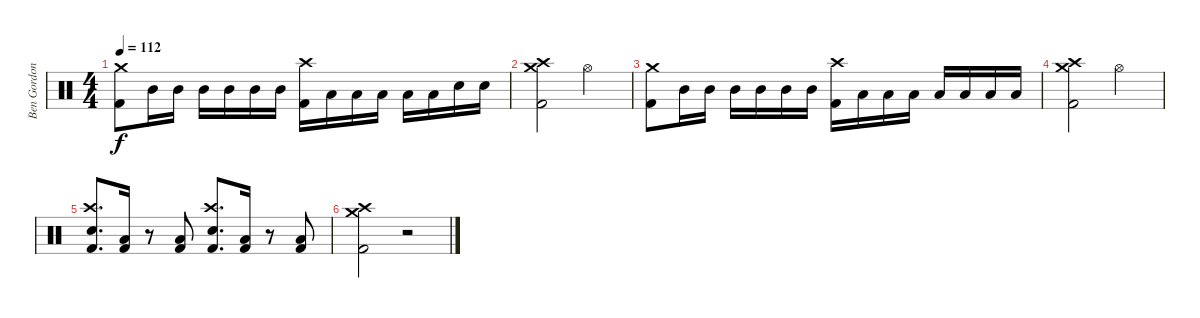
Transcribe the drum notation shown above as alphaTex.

\track ("Ben Gordon" "Ben Gordon") {instrument percussion}
\staff {score}
\articulation defaults
\ts (4 4)
\tempo 112
\clef neutral
\ks c
("Crash medium (hit)" "Kick (hit) 2").8{dy f} "Mid Tom (hit)".16 "Mid Tom (hit)".16 "Mid Tom (hit)".16 "Mid Tom (hit)".16 "Mid Tom (hit)".16 "Mid Tom (hit)".16 ("Crash high (hit)" "Kick (hit) 2").16 "Low Tom (hit)".16 "Low Tom (hit)".16 "Low Tom (hit)".16 "Low Tom (hit)".16 "Low Tom (hit)".16 "Electric Snare (hit)".16 "Electric Snare (hit)".16 |
("Crash medium (hit)" "Crash high (hit)" "Kick (hit) 2").2 "Hi-Hat (open)".2 |
("Crash medium (hit)" "Kick (hit) 2").8 "Mid Tom (hit)".16 "Mid Tom (hit)".16 "Mid Tom (hit)".16 "Mid Tom (hit)".16 "Mid Tom (hit)".16 "Mid Tom (hit)".16 ("Crash high (hit)" "Kick (hit) 2").16 "Low Tom (hit)".16 "Low Tom (hit)".16 "Low Tom (hit)".16 "Low Tom (hit)".16 "Low Tom (hit)".16 "Low Tom (hit)".16 "Low Tom (hit)".16 |
("Crash medium (hit)" "Crash high (hit)" "Kick (hit) 2").2 "Hi-Hat (open)".2 |
("Crash high (hit)" "Electric Snare (hit)" "Kick (hit) 2").8{d} ("Low Floor Tom (hit)" "Kick (hit) 2").16 r.8 ("Low Floor Tom (hit)" "Kick (hit) 2").8 ("Crash high (hit)" "Electric Snare (hit)" "Kick (hit) 2").8{d} ("Low Floor Tom (hit)" "Kick (hit) 2").16 r.8 ("Low Floor Tom (hit)" "Kick (hit) 2").8 |
("Crash medium (hit)" "Crash high (hit)" "Kick (hit) 2").2 r.2
